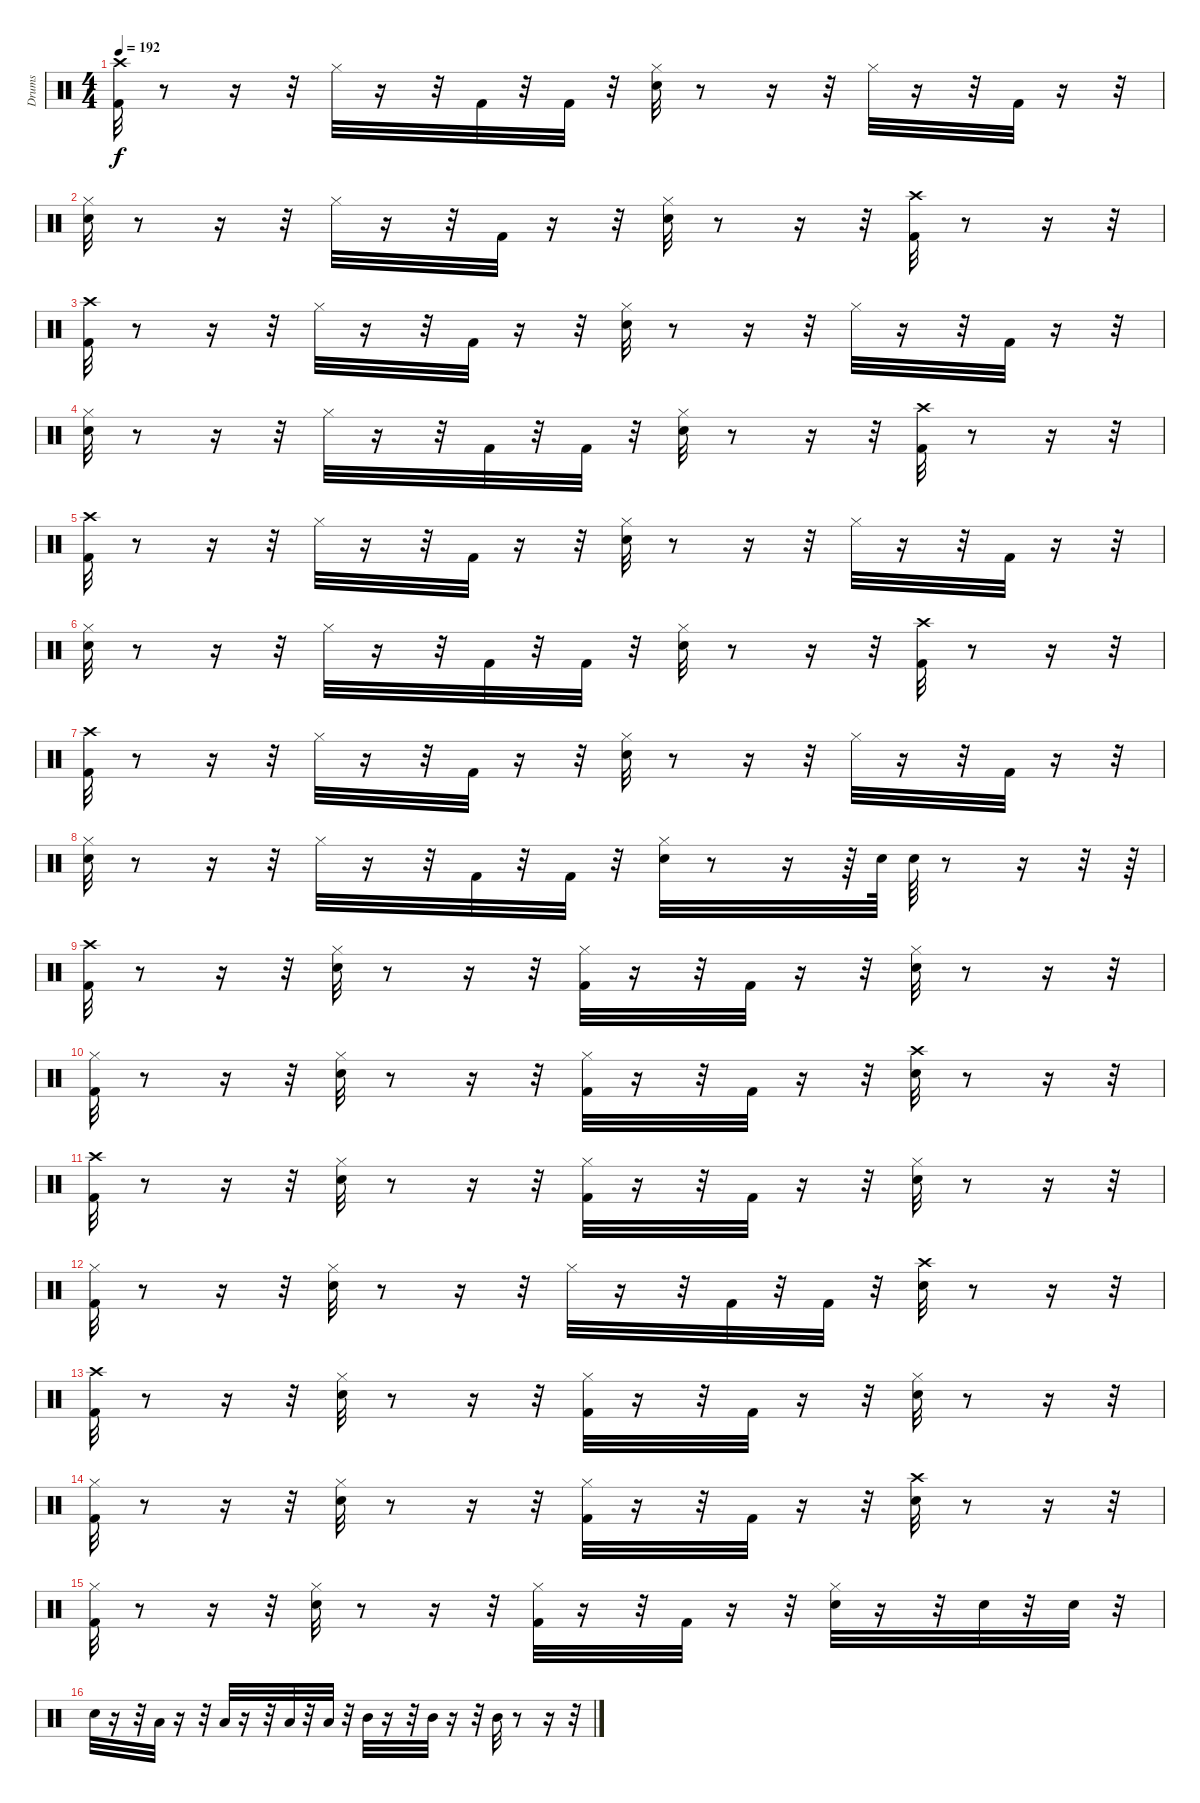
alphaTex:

\track ("Drums" "Drums") {instrument percussion}
\staff {score}
\articulation defaults
\ts (4 4)
\tempo 192
\clef neutral
\ks c
("Kick (hit) 2" "Crash high (hit)").32{dy f} r.8 r.16 r.32 "Hi-Hat (closed)".32 r.16 r.32 "Kick (hit) 2".32 r.32 "Kick (hit) 2".32 r.32 ("Hi-Hat (closed)" "Snare (hit) 2").32 r.8 r.16 r.32 "Hi-Hat (closed)".32 r.16 r.32 "Kick (hit) 2".32 r.16 r.32 |
("Hi-Hat (closed)" "Snare (hit) 2").32 r.8 r.16 r.32 "Hi-Hat (closed)".32 r.16 r.32 "Kick (hit) 2".32 r.16 r.32 ("Snare (hit) 2" "Hi-Hat (closed)").32 r.8 r.16 r.32 ("Crash high (hit)" "Kick (hit) 2").32 r.8 r.16 r.32 |
("Kick (hit) 2" "Crash high (hit)").32 r.8 r.16 r.32 "Hi-Hat (closed)".32 r.16 r.32 "Kick (hit) 2".32 r.16 r.32 ("Snare (hit) 2" "Hi-Hat (closed)").32 r.8 r.16 r.32 "Hi-Hat (closed)".32 r.16 r.32 "Kick (hit) 2".32 r.16 r.32 |
("Hi-Hat (closed)" "Snare (hit) 2").32 r.8 r.16 r.32 "Hi-Hat (closed)".32 r.16 r.32 "Kick (hit) 2".32 r.32 "Kick (hit) 2".32 r.32 ("Snare (hit) 2" "Hi-Hat (closed)").32 r.8 r.16 r.32 ("Crash high (hit)" "Kick (hit) 2").32 r.8 r.16 r.32 |
("Kick (hit) 2" "Crash high (hit)").32 r.8 r.16 r.32 "Hi-Hat (closed)".32 r.16 r.32 "Kick (hit) 2".32 r.16 r.32 ("Snare (hit) 2" "Hi-Hat (closed)").32 r.8 r.16 r.32 "Hi-Hat (closed)".32 r.16 r.32 "Kick (hit) 2".32 r.16 r.32 |
("Hi-Hat (closed)" "Snare (hit) 2").32 r.8 r.16 r.32 "Hi-Hat (closed)".32 r.16 r.32 "Kick (hit) 2".32 r.32 "Kick (hit) 2".32 r.32 ("Snare (hit) 2" "Hi-Hat (closed)").32 r.8 r.16 r.32 ("Crash high (hit)" "Kick (hit) 2").32 r.8 r.16 r.32 |
("Kick (hit) 2" "Crash high (hit)").32 r.8 r.16 r.32 "Hi-Hat (closed)".32 r.16 r.32 "Kick (hit) 2".32 r.16 r.32 ("Snare (hit) 2" "Hi-Hat (closed)").32 r.8 r.16 r.32 "Hi-Hat (closed)".32 r.16 r.32 "Kick (hit) 2".32 r.16 r.32 |
("Hi-Hat (closed)" "Snare (hit) 2").32 r.8 r.16 r.32 "Hi-Hat (closed)".32 r.16 r.32 "Kick (hit) 2".32 r.32 "Kick (hit) 2".32 r.32 ("Snare (hit) 2" "Hi-Hat (closed)").32 r.8 r.16 r.64 "Snare (hit) 2".64 "Snare (hit) 2".64 r.8 r.16 r.32 r.64 |
("Kick (hit) 2" "Crash high (hit)").32 r.8 r.16 r.32 ("Hi-Hat (closed)" "Snare (hit) 2").32 r.8 r.16 r.32 ("Hi-Hat (closed)" "Kick (hit) 2").32 r.16 r.32 "Kick (hit) 2".32 r.16 r.32 ("Snare (hit) 2" "Hi-Hat (closed)").32 r.8 r.16 r.32 |
("Kick (hit) 2" "Hi-Hat (closed)").32 r.8 r.16 r.32 ("Snare (hit) 2" "Hi-Hat (closed)").32 r.8 r.16 r.32 ("Kick (hit) 2" "Hi-Hat (closed)").32 r.16 r.32 "Kick (hit) 2".32 r.16 r.32 ("Crash high (hit)" "Snare (hit) 2").32 r.8 r.16 r.32 |
("Kick (hit) 2" "Crash high (hit)").32 r.8 r.16 r.32 ("Hi-Hat (closed)" "Snare (hit) 2").32 r.8 r.16 r.32 ("Kick (hit) 2" "Hi-Hat (closed)").32 r.16 r.32 "Kick (hit) 2".32 r.16 r.32 ("Hi-Hat (closed)" "Snare (hit) 2").32 r.8 r.16 r.32 |
("Kick (hit) 2" "Hi-Hat (closed)").32 r.8 r.16 r.32 ("Snare (hit) 2" "Hi-Hat (closed)").32 r.8 r.16 r.32 "Hi-Hat (closed)".32 r.16 r.32 "Kick (hit) 2".32 r.32 "Kick (hit) 2".32 r.32 ("Crash high (hit)" "Snare (hit) 2").32 r.8 r.16 r.32 |
("Kick (hit) 2" "Crash high (hit)").32 r.8 r.16 r.32 ("Hi-Hat (closed)" "Snare (hit) 2").32 r.8 r.16 r.32 ("Hi-Hat (closed)" "Kick (hit) 2").32 r.16 r.32 "Kick (hit) 2".32 r.16 r.32 ("Snare (hit) 2" "Hi-Hat (closed)").32 r.8 r.16 r.32 |
("Kick (hit) 2" "Hi-Hat (closed)").32 r.8 r.16 r.32 ("Snare (hit) 2" "Hi-Hat (closed)").32 r.8 r.16 r.32 ("Kick (hit) 2" "Hi-Hat (closed)").32 r.16 r.32 "Kick (hit) 2".32 r.16 r.32 ("Crash high (hit)" "Snare (hit) 2").32 r.8 r.16 r.32 |
("Kick (hit) 2" "Hi-Hat (closed)").32 r.8 r.16 r.32 ("Snare (hit) 2" "Hi-Hat (closed)").32 r.8 r.16 r.32 ("Kick (hit) 2" "Hi-Hat (closed)").32 r.16 r.32 "Kick (hit) 2".32 r.16 r.32 ("Snare (hit) 2" "Hi-Hat (closed)").32 r.16 r.32 "Snare (hit) 2".32 r.32 "Snare (hit) 2".32 r.32 |
"Snare (hit) 2".32 r.16 r.32 "Low Tom (hit)".32 r.16 r.32 "Low Tom (hit)".32 r.16 r.32 "Low Tom (hit)".32 r.32 "Low Tom (hit)".32 r.32 "Mid Tom (hit)".32 r.16 r.32 "Mid Tom (hit)".32 r.16 r.32 "Mid Tom (hit)".32 r.8 r.16 r.32
